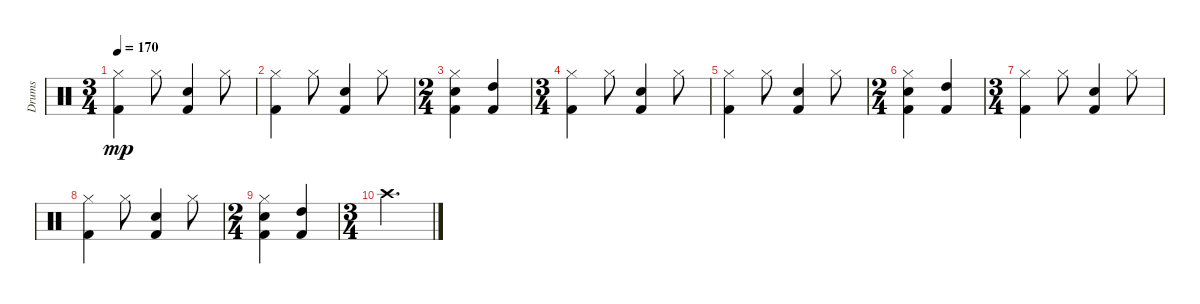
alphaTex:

\track ("Drums" "Drums") {instrument percussion}
\staff {score}
\articulation defaults
\ts (3 4)
\tempo 170
\clef neutral
\ks c
("Hi-Hat (closed)" "Kick (hit) 2").4{dy mp} "Hi-Hat (closed)".8 ("Snare (hit) 2" "Kick (hit) 2").4 "Hi-Hat (closed)".8 |
("Hi-Hat (closed)" "Kick (hit) 2").4 "Hi-Hat (closed)".8 ("Snare (hit) 2" "Kick (hit) 2").4 "Hi-Hat (closed)".8 |
\ts (2 4)
("Hi-Hat (closed)" "Snare (hit) 2" "Kick (hit) 2").4 ("High Tom (hit)" "Kick (hit) 2").4 |
\ts (3 4)
("Hi-Hat (closed)" "Kick (hit) 2").4 "Hi-Hat (closed)".8 ("Snare (hit) 2" "Kick (hit) 2").4 "Hi-Hat (closed)".8 |
("Hi-Hat (closed)" "Kick (hit) 2").4 "Hi-Hat (closed)".8 ("Snare (hit) 2" "Kick (hit) 2").4 "Hi-Hat (closed)".8 |
\ts (2 4)
("Hi-Hat (closed)" "Snare (hit) 2" "Kick (hit) 2").4 ("High Tom (hit)" "Kick (hit) 2").4 |
\ts (3 4)
("Hi-Hat (closed)" "Kick (hit) 2").4 "Hi-Hat (closed)".8 ("Snare (hit) 2" "Kick (hit) 2").4 "Hi-Hat (closed)".8 |
("Hi-Hat (closed)" "Kick (hit) 2").4 "Hi-Hat (closed)".8 ("Snare (hit) 2" "Kick (hit) 2").4 "Hi-Hat (closed)".8 |
\ts (2 4)
("Hi-Hat (closed)" "Snare (hit) 2" "Kick (hit) 2").4 ("High Tom (hit)" "Kick (hit) 2").4 |
\ts (3 4)
"Crash high (hit)".2{d}
